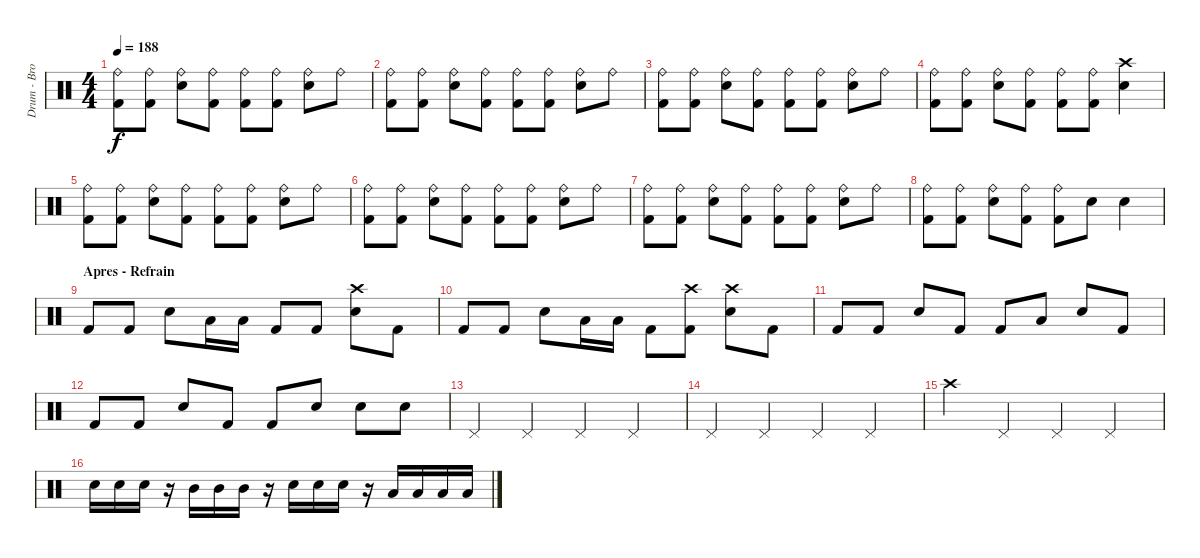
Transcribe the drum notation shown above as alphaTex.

\track ("Drum - Brooks Wackerman" "Drum - Bro") {instrument percussion}
\staff {score}
\articulation defaults
\ts (4 4)
\tempo 188
\clef neutral
\ks c
("Ride (bell)" "Kick (hit) 2").8{dy f} ("Ride (bell)" "Kick (hit) 2").8 ("Ride (bell)" "Electric Snare (hit)").8 ("Ride (bell)" "Kick (hit) 2").8 ("Ride (bell)" "Kick (hit) 2").8 ("Ride (bell)" "Kick (hit) 2").8 ("Ride (bell)" "Electric Snare (hit)").8 "Ride (bell)".8 |
("Ride (bell)" "Kick (hit) 2").8 ("Ride (bell)" "Kick (hit) 2").8 ("Ride (bell)" "Electric Snare (hit)").8 ("Ride (bell)" "Kick (hit) 2").8 ("Ride (bell)" "Kick (hit) 2").8 ("Ride (bell)" "Kick (hit) 2").8 ("Ride (bell)" "Electric Snare (hit)").8 "Ride (bell)".8 |
("Ride (bell)" "Kick (hit) 2").8 ("Ride (bell)" "Kick (hit) 2").8 ("Ride (bell)" "Electric Snare (hit)").8 ("Ride (bell)" "Kick (hit) 2").8 ("Ride (bell)" "Kick (hit) 2").8 ("Ride (bell)" "Kick (hit) 2").8 ("Ride (bell)" "Electric Snare (hit)").8 "Ride (bell)".8 |
("Ride (bell)" "Kick (hit) 2").8 ("Ride (bell)" "Kick (hit) 2").8 ("Ride (bell)" "Electric Snare (hit)").8 ("Ride (bell)" "Kick (hit) 2").8 ("Ride (bell)" "Kick (hit) 2").8 ("Ride (bell)" "Kick (hit) 2").8 ("Crash high (hit)" "Electric Snare (hit)").4 |
("Ride (bell)" "Kick (hit) 2").8 ("Ride (bell)" "Kick (hit) 2").8 ("Ride (bell)" "Electric Snare (hit)").8 ("Ride (bell)" "Kick (hit) 2").8 ("Ride (bell)" "Kick (hit) 2").8 ("Ride (bell)" "Kick (hit) 2").8 ("Ride (bell)" "Electric Snare (hit)").8 "Ride (bell)".8 |
("Ride (bell)" "Kick (hit) 2").8 ("Ride (bell)" "Kick (hit) 2").8 ("Ride (bell)" "Electric Snare (hit)").8 ("Ride (bell)" "Kick (hit) 2").8 ("Ride (bell)" "Kick (hit) 2").8 ("Ride (bell)" "Kick (hit) 2").8 ("Ride (bell)" "Electric Snare (hit)").8 "Ride (bell)".8 |
("Ride (bell)" "Kick (hit) 2").8 ("Ride (bell)" "Kick (hit) 2").8 ("Ride (bell)" "Electric Snare (hit)").8 ("Ride (bell)" "Kick (hit) 2").8 ("Ride (bell)" "Kick (hit) 2").8 ("Ride (bell)" "Kick (hit) 2").8 ("Ride (bell)" "Electric Snare (hit)").8 "Ride (bell)".8 |
("Ride (bell)" "Kick (hit) 2").8 ("Ride (bell)" "Kick (hit) 2").8 ("Ride (bell)" "Electric Snare (hit)").8 ("Ride (bell)" "Kick (hit) 2").8 ("Ride (bell)" "Kick (hit) 2").8 "Electric Snare (hit)".8 "Electric Snare (hit)".4 |
\section ("" "Apres - Refrain")
"Kick (hit) 2".8 "Kick (hit) 2".8 "Electric Snare (hit)".8 "Low Floor Tom (hit)".16 "Low Floor Tom (hit)".16 "Kick (hit) 2".8 "Kick (hit) 2".8 ("Crash high (hit)" "Electric Snare (hit)").8 "Kick (hit) 2".8 |
"Kick (hit) 2".8 "Kick (hit) 2".8 "Electric Snare (hit)".8 "Low Floor Tom (hit)".16 "Low Floor Tom (hit)".16 "Kick (hit) 2".8 ("Crash high (hit)" "Kick (hit) 2").8 ("Crash high (hit)" "Electric Snare (hit)").8 "Kick (hit) 2".8 |
"Kick (hit) 2".8 "Kick (hit) 2".8 "Electric Snare (hit)".8 "Kick (hit) 2".8 "Kick (hit) 2".8 "Low Floor Tom (hit)".8 "Electric Snare (hit)".8 "Kick (hit) 2".8 |
"Kick (hit) 2".8 "Kick (hit) 2".8 "Electric Snare (hit)".8 "Kick (hit) 2".8 "Kick (hit) 2".8 "Electric Snare (hit)".8 "Electric Snare (hit)".8 "Electric Snare (hit)".8 |
"Pedal Hi-Hat (hit)".4 "Pedal Hi-Hat (hit)".4 "Pedal Hi-Hat (hit)".4 "Pedal Hi-Hat (hit)".4 |
"Pedal Hi-Hat (hit)".4 "Pedal Hi-Hat (hit)".4 "Pedal Hi-Hat (hit)".4 "Pedal Hi-Hat (hit)".4 |
"Crash high (hit)".4 "Pedal Hi-Hat (hit)".4 "Pedal Hi-Hat (hit)".4 "Pedal Hi-Hat (hit)".4 |
"Electric Snare (hit)".16 "Electric Snare (hit)".16 "Electric Snare (hit)".16 r.16 "Mid Tom (hit)".16 "Mid Tom (hit)".16 "Mid Tom (hit)".16 r.16 "Electric Snare (hit)".16 "Electric Snare (hit)".16 "Electric Snare (hit)".16 r.16 "Low Tom (hit)".16 "Low Tom (hit)".16 "Low Tom (hit)".16 "Low Tom (hit)".16
